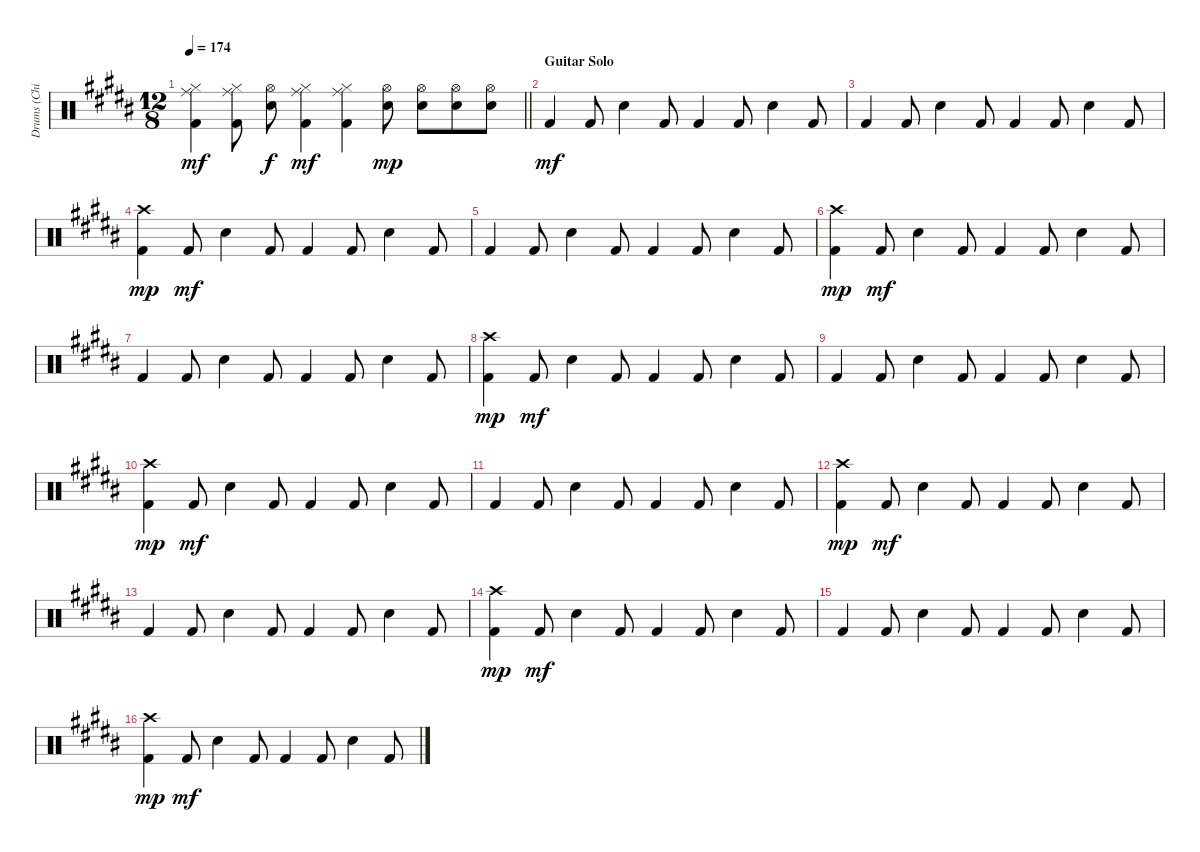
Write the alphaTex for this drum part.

\track ("Drums (Chinyakov)" "Drums (Chi") {instrument percussion}
\staff {score}
\articulation defaults
\ts (12 8)
\tempo 174
\clef neutral
\barLineRight lightlight
\ks b
("Kick (hit) 2" "Hi-Hat (closed)" "Ride (middle)").4{dy mf} ("Kick (hit) 2" "Hi-Hat (closed)" "Ride (middle)").8 ("Electric Snare (hit)" "Hi-Hat (open)").8{dy f} ("Kick (hit) 2" "Hi-Hat (closed)" "Ride (middle)").4{dy mf} ("Kick (hit) 2" "Hi-Hat (closed)" "Ride (middle)").4 ("Electric Snare (hit)" "Hi-Hat (open)").8{dy mp} ("Electric Snare (hit)" "Hi-Hat (open)").8 ("Electric Snare (hit)" "Hi-Hat (open)").8 ("Electric Snare (hit)" "Hi-Hat (open)").8 |
\section ("" "Guitar Solo")
"Kick (hit) 2".4{dy mf} "Kick (hit) 2".8 "Electric Snare (hit)".4 "Kick (hit) 2".8 "Kick (hit) 2".4 "Kick (hit) 2".8 "Electric Snare (hit)".4 "Kick (hit) 2".8 |
"Kick (hit) 2".4 "Kick (hit) 2".8 "Electric Snare (hit)".4 "Kick (hit) 2".8 "Kick (hit) 2".4 "Kick (hit) 2".8 "Electric Snare (hit)".4 "Kick (hit) 2".8 |
("Kick (hit) 2" "Crash high (hit)").4{dy mp} "Kick (hit) 2".8{dy mf} "Electric Snare (hit)".4 "Kick (hit) 2".8 "Kick (hit) 2".4 "Kick (hit) 2".8 "Electric Snare (hit)".4 "Kick (hit) 2".8 |
"Kick (hit) 2".4 "Kick (hit) 2".8 "Electric Snare (hit)".4 "Kick (hit) 2".8 "Kick (hit) 2".4 "Kick (hit) 2".8 "Electric Snare (hit)".4 "Kick (hit) 2".8 |
("Kick (hit) 2" "Crash high (hit)").4{dy mp} "Kick (hit) 2".8{dy mf} "Electric Snare (hit)".4 "Kick (hit) 2".8 "Kick (hit) 2".4 "Kick (hit) 2".8 "Electric Snare (hit)".4 "Kick (hit) 2".8 |
"Kick (hit) 2".4 "Kick (hit) 2".8 "Electric Snare (hit)".4 "Kick (hit) 2".8 "Kick (hit) 2".4 "Kick (hit) 2".8 "Electric Snare (hit)".4 "Kick (hit) 2".8 |
("Kick (hit) 2" "Crash high (hit)").4{dy mp} "Kick (hit) 2".8{dy mf} "Electric Snare (hit)".4 "Kick (hit) 2".8 "Kick (hit) 2".4 "Kick (hit) 2".8 "Electric Snare (hit)".4 "Kick (hit) 2".8 |
"Kick (hit) 2".4 "Kick (hit) 2".8 "Electric Snare (hit)".4 "Kick (hit) 2".8 "Kick (hit) 2".4 "Kick (hit) 2".8 "Electric Snare (hit)".4 "Kick (hit) 2".8 |
("Kick (hit) 2" "Crash high (hit)").4{dy mp} "Kick (hit) 2".8{dy mf} "Electric Snare (hit)".4 "Kick (hit) 2".8 "Kick (hit) 2".4 "Kick (hit) 2".8 "Electric Snare (hit)".4 "Kick (hit) 2".8 |
"Kick (hit) 2".4 "Kick (hit) 2".8 "Electric Snare (hit)".4 "Kick (hit) 2".8 "Kick (hit) 2".4 "Kick (hit) 2".8 "Electric Snare (hit)".4 "Kick (hit) 2".8 |
("Kick (hit) 2" "Crash high (hit)").4{dy mp} "Kick (hit) 2".8{dy mf} "Electric Snare (hit)".4 "Kick (hit) 2".8 "Kick (hit) 2".4 "Kick (hit) 2".8 "Electric Snare (hit)".4 "Kick (hit) 2".8 |
"Kick (hit) 2".4 "Kick (hit) 2".8 "Electric Snare (hit)".4 "Kick (hit) 2".8 "Kick (hit) 2".4 "Kick (hit) 2".8 "Electric Snare (hit)".4 "Kick (hit) 2".8 |
("Kick (hit) 2" "Crash high (hit)").4{dy mp} "Kick (hit) 2".8{dy mf} "Electric Snare (hit)".4 "Kick (hit) 2".8 "Kick (hit) 2".4 "Kick (hit) 2".8 "Electric Snare (hit)".4 "Kick (hit) 2".8 |
"Kick (hit) 2".4 "Kick (hit) 2".8 "Electric Snare (hit)".4 "Kick (hit) 2".8 "Kick (hit) 2".4 "Kick (hit) 2".8 "Electric Snare (hit)".4 "Kick (hit) 2".8 |
("Kick (hit) 2" "Crash high (hit)").4{dy mp} "Kick (hit) 2".8{dy mf} "Electric Snare (hit)".4 "Kick (hit) 2".8 "Kick (hit) 2".4 "Kick (hit) 2".8 "Electric Snare (hit)".4 "Kick (hit) 2".8
